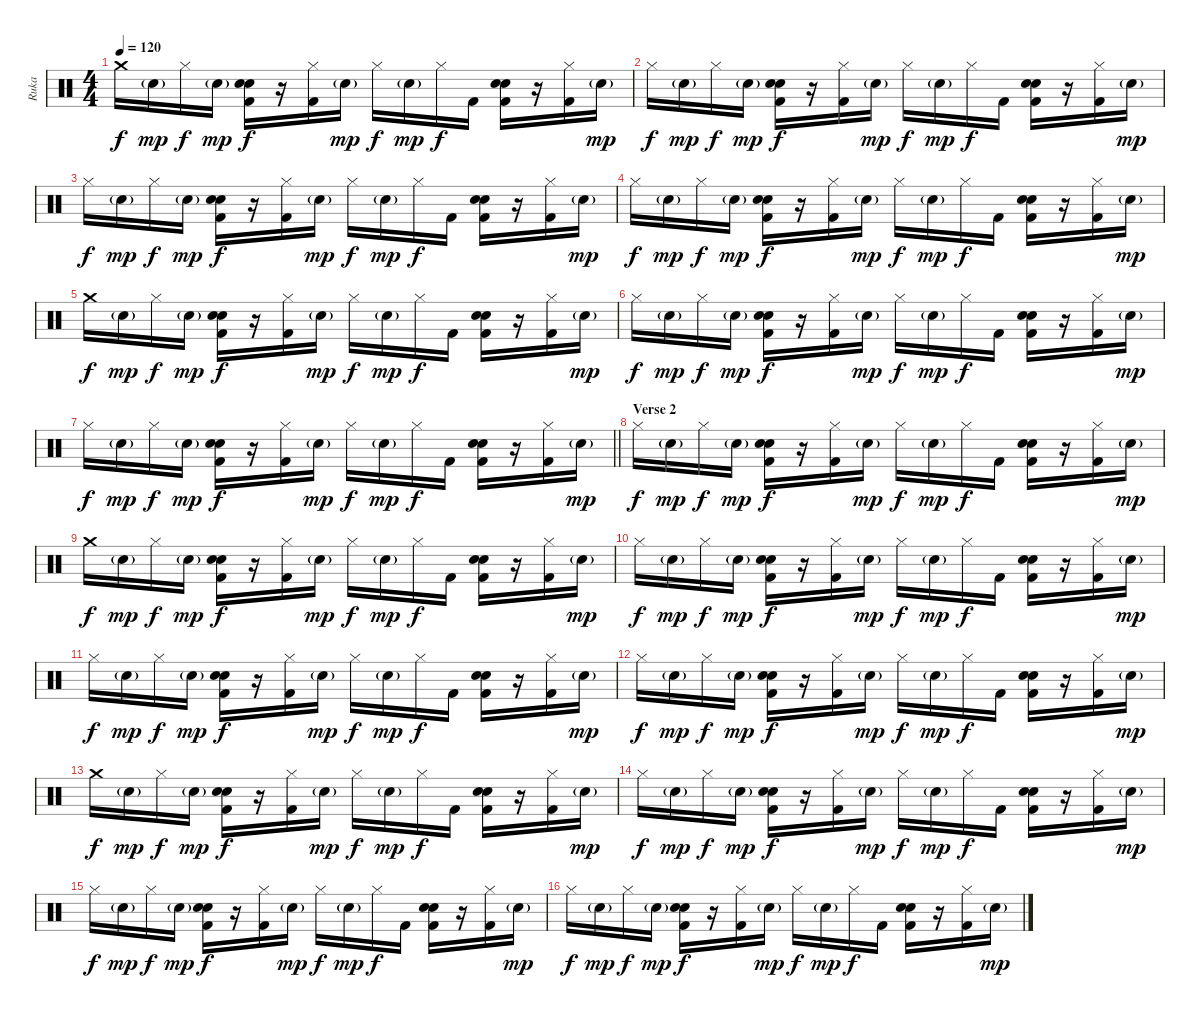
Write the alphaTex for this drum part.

\track ("Ruka" "Ruka") {instrument percussion}
\staff {score}
\articulation defaults
\ts (4 4)
\tempo 120
\clef neutral
\ks c "Crash medium (hit)".16{dy f} "Snare (hit) 2"{g}.16{dy mp} "Hi-Hat (closed)".16{dy f} "Snare (hit) 2"{g}.16{dy mp}
("Kick (hit) 2" "Snare (hit) 2" "Snare (hit) 2").16{dy f} r.16 ("Kick (hit) 2" "Hi-Hat (closed)").16 "Snare (hit) 2"{g}.16{dy mp} "Hi-Hat (closed)".16{dy f} "Snare (hit) 2"{g}.16{dy mp} "Hi-Hat (closed)".16{dy f} "Kick (hit) 2".16 ("Kick (hit) 2" "Snare (hit) 2" "Snare (hit) 2").16 r.16 ("Kick (hit) 2" "Hi-Hat (closed)").16 "Snare (hit) 2"{g}.16{dy mp} |
"Hi-Hat (closed)".16{dy f} "Snare (hit) 2"{g}.16{dy mp} "Hi-Hat (closed)".16{dy f} "Snare (hit) 2"{g}.16{dy mp} ("Kick (hit) 2" "Snare (hit) 2" "Snare (hit) 2").16{dy f} r.16 ("Kick (hit) 2" "Hi-Hat (closed)").16 "Snare (hit) 2"{g}.16{dy mp} "Hi-Hat (closed)".16{dy f} "Snare (hit) 2"{g}.16{dy mp} "Hi-Hat (closed)".16{dy f} "Kick (hit) 2".16 ("Kick (hit) 2" "Snare (hit) 2" "Snare (hit) 2").16 r.16 ("Kick (hit) 2" "Hi-Hat (closed)").16 "Snare (hit) 2"{g}.16{dy mp} |
"Hi-Hat (closed)".16{dy f} "Snare (hit) 2"{g}.16{dy mp} "Hi-Hat (closed)".16{dy f} "Snare (hit) 2"{g}.16{dy mp} ("Kick (hit) 2" "Snare (hit) 2" "Snare (hit) 2").16{dy f} r.16 ("Kick (hit) 2" "Hi-Hat (closed)").16 "Snare (hit) 2"{g}.16{dy mp} "Hi-Hat (closed)".16{dy f} "Snare (hit) 2"{g}.16{dy mp} "Hi-Hat (closed)".16{dy f} "Kick (hit) 2".16 ("Kick (hit) 2" "Snare (hit) 2" "Snare (hit) 2").16 r.16 ("Kick (hit) 2" "Hi-Hat (closed)").16 "Snare (hit) 2"{g}.16{dy mp} |
"Hi-Hat (closed)".16{dy f} "Snare (hit) 2"{g}.16{dy mp} "Hi-Hat (closed)".16{dy f} "Snare (hit) 2"{g}.16{dy mp} ("Kick (hit) 2" "Snare (hit) 2" "Snare (hit) 2").16{dy f} r.16 ("Kick (hit) 2" "Hi-Hat (closed)").16 "Snare (hit) 2"{g}.16{dy mp} "Hi-Hat (closed)".16{dy f} "Snare (hit) 2"{g}.16{dy mp} "Hi-Hat (closed)".16{dy f} "Kick (hit) 2".16 ("Kick (hit) 2" "Snare (hit) 2" "Snare (hit) 2").16 r.16 ("Kick (hit) 2" "Hi-Hat (closed)").16 "Snare (hit) 2"{g}.16{dy mp} |
"Crash medium (hit)".16{dy f} "Snare (hit) 2"{g}.16{dy mp} "Hi-Hat (closed)".16{dy f} "Snare (hit) 2"{g}.16{dy mp} ("Kick (hit) 2" "Snare (hit) 2" "Snare (hit) 2").16{dy f} r.16 ("Kick (hit) 2" "Hi-Hat (closed)").16 "Snare (hit) 2"{g}.16{dy mp} "Hi-Hat (closed)".16{dy f} "Snare (hit) 2"{g}.16{dy mp} "Hi-Hat (closed)".16{dy f} "Kick (hit) 2".16 ("Kick (hit) 2" "Snare (hit) 2" "Snare (hit) 2").16 r.16 ("Kick (hit) 2" "Hi-Hat (closed)").16 "Snare (hit) 2"{g}.16{dy mp} |
"Hi-Hat (closed)".16{dy f} "Snare (hit) 2"{g}.16{dy mp} "Hi-Hat (closed)".16{dy f} "Snare (hit) 2"{g}.16{dy mp} ("Kick (hit) 2" "Snare (hit) 2" "Snare (hit) 2").16{dy f} r.16 ("Kick (hit) 2" "Hi-Hat (closed)").16 "Snare (hit) 2"{g}.16{dy mp} "Hi-Hat (closed)".16{dy f} "Snare (hit) 2"{g}.16{dy mp} "Hi-Hat (closed)".16{dy f} "Kick (hit) 2".16 ("Kick (hit) 2" "Snare (hit) 2" "Snare (hit) 2").16 r.16 ("Kick (hit) 2" "Hi-Hat (closed)").16 "Snare (hit) 2"{g}.16{dy mp} |
\barLineRight lightlight "Hi-Hat (closed)".16{dy f} "Snare (hit) 2"{g}.16{dy mp} "Hi-Hat (closed)".16{dy f} "Snare (hit) 2"{g}.16{dy mp}
("Kick (hit) 2" "Snare (hit) 2" "Snare (hit) 2").16{dy f} r.16 ("Kick (hit) 2" "Hi-Hat (closed)").16 "Snare (hit) 2"{g}.16{dy mp} "Hi-Hat (closed)".16{dy f} "Snare (hit) 2"{g}.16{dy mp} "Hi-Hat (closed)".16{dy f} "Kick (hit) 2".16 ("Kick (hit) 2" "Snare (hit) 2" "Snare (hit) 2").16 r.16 ("Kick (hit) 2" "Hi-Hat (closed)").16 "Snare (hit) 2"{g}.16{dy mp} |
\section ("" "Verse 2")
"Hi-Hat (closed)".16{dy f} "Snare (hit) 2"{g}.16{dy mp} "Hi-Hat (closed)".16{dy f} "Snare (hit) 2"{g}.16{dy mp} ("Kick (hit) 2" "Snare (hit) 2" "Snare (hit) 2").16{dy f} r.16 ("Kick (hit) 2" "Hi-Hat (closed)").16 "Snare (hit) 2"{g}.16{dy mp} "Hi-Hat (closed)".16{dy f} "Snare (hit) 2"{g}.16{dy mp} "Hi-Hat (closed)".16{dy f} "Kick (hit) 2".16 ("Kick (hit) 2" "Snare (hit) 2" "Snare (hit) 2").16 r.16 ("Kick (hit) 2" "Hi-Hat (closed)").16 "Snare (hit) 2"{g}.16{dy mp} |
"Crash medium (hit)".16{dy f} "Snare (hit) 2"{g}.16{dy mp} "Hi-Hat (closed)".16{dy f} "Snare (hit) 2"{g}.16{dy mp} ("Kick (hit) 2" "Snare (hit) 2" "Snare (hit) 2").16{dy f} r.16 ("Kick (hit) 2" "Hi-Hat (closed)").16 "Snare (hit) 2"{g}.16{dy mp} "Hi-Hat (closed)".16{dy f} "Snare (hit) 2"{g}.16{dy mp} "Hi-Hat (closed)".16{dy f} "Kick (hit) 2".16 ("Kick (hit) 2" "Snare (hit) 2" "Snare (hit) 2").16 r.16 ("Kick (hit) 2" "Hi-Hat (closed)").16 "Snare (hit) 2"{g}.16{dy mp} |
"Hi-Hat (closed)".16{dy f} "Snare (hit) 2"{g}.16{dy mp} "Hi-Hat (closed)".16{dy f} "Snare (hit) 2"{g}.16{dy mp} ("Kick (hit) 2" "Snare (hit) 2" "Snare (hit) 2").16{dy f} r.16 ("Kick (hit) 2" "Hi-Hat (closed)").16 "Snare (hit) 2"{g}.16{dy mp} "Hi-Hat (closed)".16{dy f} "Snare (hit) 2"{g}.16{dy mp} "Hi-Hat (closed)".16{dy f} "Kick (hit) 2".16 ("Kick (hit) 2" "Snare (hit) 2" "Snare (hit) 2").16 r.16 ("Kick (hit) 2" "Hi-Hat (closed)").16 "Snare (hit) 2"{g}.16{dy mp} |
"Hi-Hat (closed)".16{dy f} "Snare (hit) 2"{g}.16{dy mp} "Hi-Hat (closed)".16{dy f} "Snare (hit) 2"{g}.16{dy mp} ("Kick (hit) 2" "Snare (hit) 2" "Snare (hit) 2").16{dy f} r.16 ("Kick (hit) 2" "Hi-Hat (closed)").16 "Snare (hit) 2"{g}.16{dy mp} "Hi-Hat (closed)".16{dy f} "Snare (hit) 2"{g}.16{dy mp} "Hi-Hat (closed)".16{dy f} "Kick (hit) 2".16 ("Kick (hit) 2" "Snare (hit) 2" "Snare (hit) 2").16 r.16 ("Kick (hit) 2" "Hi-Hat (closed)").16 "Snare (hit) 2"{g}.16{dy mp} |
"Hi-Hat (closed)".16{dy f} "Snare (hit) 2"{g}.16{dy mp} "Hi-Hat (closed)".16{dy f} "Snare (hit) 2"{g}.16{dy mp} ("Kick (hit) 2" "Snare (hit) 2" "Snare (hit) 2").16{dy f} r.16 ("Kick (hit) 2" "Hi-Hat (closed)").16 "Snare (hit) 2"{g}.16{dy mp} "Hi-Hat (closed)".16{dy f} "Snare (hit) 2"{g}.16{dy mp} "Hi-Hat (closed)".16{dy f} "Kick (hit) 2".16 ("Kick (hit) 2" "Snare (hit) 2" "Snare (hit) 2").16 r.16 ("Kick (hit) 2" "Hi-Hat (closed)").16 "Snare (hit) 2"{g}.16{dy mp} |
"Crash medium (hit)".16{dy f} "Snare (hit) 2"{g}.16{dy mp} "Hi-Hat (closed)".16{dy f} "Snare (hit) 2"{g}.16{dy mp} ("Kick (hit) 2" "Snare (hit) 2" "Snare (hit) 2").16{dy f} r.16 ("Kick (hit) 2" "Hi-Hat (closed)").16 "Snare (hit) 2"{g}.16{dy mp} "Hi-Hat (closed)".16{dy f} "Snare (hit) 2"{g}.16{dy mp} "Hi-Hat (closed)".16{dy f} "Kick (hit) 2".16 ("Kick (hit) 2" "Snare (hit) 2" "Snare (hit) 2").16 r.16 ("Kick (hit) 2" "Hi-Hat (closed)").16 "Snare (hit) 2"{g}.16{dy mp} |
"Hi-Hat (closed)".16{dy f} "Snare (hit) 2"{g}.16{dy mp} "Hi-Hat (closed)".16{dy f} "Snare (hit) 2"{g}.16{dy mp} ("Kick (hit) 2" "Snare (hit) 2" "Snare (hit) 2").16{dy f} r.16 ("Kick (hit) 2" "Hi-Hat (closed)").16 "Snare (hit) 2"{g}.16{dy mp} "Hi-Hat (closed)".16{dy f} "Snare (hit) 2"{g}.16{dy mp} "Hi-Hat (closed)".16{dy f} "Kick (hit) 2".16 ("Kick (hit) 2" "Snare (hit) 2" "Snare (hit) 2").16 r.16 ("Kick (hit) 2" "Hi-Hat (closed)").16 "Snare (hit) 2"{g}.16{dy mp} |
"Hi-Hat (closed)".16{dy f} "Snare (hit) 2"{g}.16{dy mp} "Hi-Hat (closed)".16{dy f} "Snare (hit) 2"{g}.16{dy mp} ("Kick (hit) 2" "Snare (hit) 2" "Snare (hit) 2").16{dy f} r.16 ("Kick (hit) 2" "Hi-Hat (closed)").16 "Snare (hit) 2"{g}.16{dy mp} "Hi-Hat (closed)".16{dy f} "Snare (hit) 2"{g}.16{dy mp} "Hi-Hat (closed)".16{dy f} "Kick (hit) 2".16 ("Kick (hit) 2" "Snare (hit) 2" "Snare (hit) 2").16 r.16 ("Kick (hit) 2" "Hi-Hat (closed)").16 "Snare (hit) 2"{g}.16{dy mp} |
"Hi-Hat (closed)".16{dy f} "Snare (hit) 2"{g}.16{dy mp} "Hi-Hat (closed)".16{dy f} "Snare (hit) 2"{g}.16{dy mp} ("Kick (hit) 2" "Snare (hit) 2" "Snare (hit) 2").16{dy f} r.16 ("Kick (hit) 2" "Hi-Hat (closed)").16 "Snare (hit) 2"{g}.16{dy mp} "Hi-Hat (closed)".16{dy f} "Snare (hit) 2"{g}.16{dy mp} "Hi-Hat (closed)".16{dy f} "Kick (hit) 2".16 ("Kick (hit) 2" "Snare (hit) 2" "Snare (hit) 2").16 r.16 ("Kick (hit) 2" "Hi-Hat (closed)").16 "Snare (hit) 2"{g}.16{dy mp}
